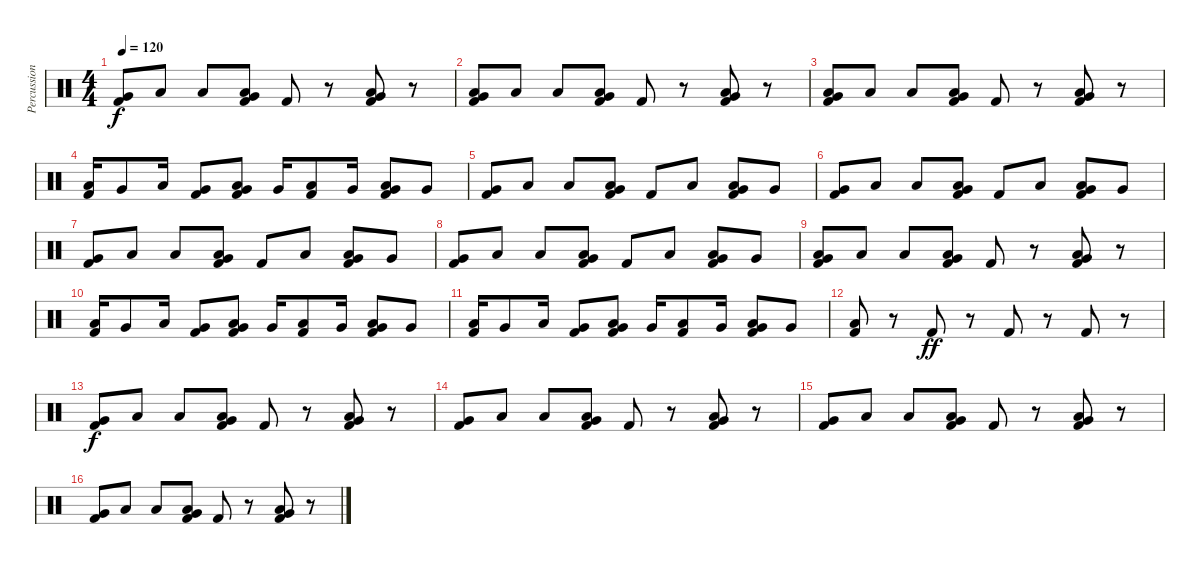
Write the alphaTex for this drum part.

\track ("Percussion" "Percussion") {instrument percussion}
\staff {score}
\articulation defaults
\ts (4 4)
\tempo 120
\clef neutral
\ks c
("Very Low Tom (hit)" "Kick (hit) 2").8{dy f} "Low Floor Tom (hit)".8 "Low Floor Tom (hit)".8 ("Low Floor Tom (hit)" "Very Low Tom (hit)" "Kick (hit) 2").8 "Kick (hit) 2".8 r.8 ("Low Floor Tom (hit)" "Very Low Tom (hit)" "Kick (hit) 2").8 r.8 |
("Low Floor Tom (hit)" "Very Low Tom (hit)" "Kick (hit) 2").8 "Low Floor Tom (hit)".8 "Low Floor Tom (hit)".8 ("Low Floor Tom (hit)" "Very Low Tom (hit)" "Kick (hit) 2").8 "Kick (hit) 2".8 r.8 ("Low Floor Tom (hit)" "Very Low Tom (hit)" "Kick (hit) 2").8 r.8 |
("Low Floor Tom (hit)" "Very Low Tom (hit)" "Kick (hit) 2").8 "Low Floor Tom (hit)".8 "Low Floor Tom (hit)".8 ("Low Floor Tom (hit)" "Very Low Tom (hit)" "Kick (hit) 2").8 "Kick (hit) 2".8 r.8 ("Low Floor Tom (hit)" "Very Low Tom (hit)" "Kick (hit) 2").8 r.8 |
("Low Floor Tom (hit)" "Kick (hit) 2").16 "Very Low Tom (hit)".8 "Low Floor Tom (hit)".16 ("Very Low Tom (hit)" "Kick (hit) 2").8 ("Low Floor Tom (hit)" "Very Low Tom (hit)" "Kick (hit) 2").8 "Very Low Tom (hit)".16 ("Low Floor Tom (hit)" "Kick (hit) 2").8 "Very Low Tom (hit)".16 ("Low Floor Tom (hit)" "Very Low Tom (hit)" "Kick (hit) 2").8 "Very Low Tom (hit)".8 |
("Very Low Tom (hit)" "Kick (hit) 2").8 "Low Floor Tom (hit)".8 "Low Floor Tom (hit)".8 ("Low Floor Tom (hit)" "Very Low Tom (hit)" "Kick (hit) 2").8 "Kick (hit) 2".8 "Low Floor Tom (hit)".8 ("Low Floor Tom (hit)" "Very Low Tom (hit)" "Kick (hit) 2").8 "Very Low Tom (hit)".8 |
("Very Low Tom (hit)" "Kick (hit) 2").8 "Low Floor Tom (hit)".8 "Low Floor Tom (hit)".8 ("Low Floor Tom (hit)" "Very Low Tom (hit)" "Kick (hit) 2").8 "Kick (hit) 2".8 "Low Floor Tom (hit)".8 ("Low Floor Tom (hit)" "Very Low Tom (hit)" "Kick (hit) 2").8 "Very Low Tom (hit)".8 |
("Very Low Tom (hit)" "Kick (hit) 2").8 "Low Floor Tom (hit)".8 "Low Floor Tom (hit)".8 ("Low Floor Tom (hit)" "Very Low Tom (hit)" "Kick (hit) 2").8 "Kick (hit) 2".8 "Low Floor Tom (hit)".8 ("Low Floor Tom (hit)" "Very Low Tom (hit)" "Kick (hit) 2").8 "Very Low Tom (hit)".8 |
("Very Low Tom (hit)" "Kick (hit) 2").8 "Low Floor Tom (hit)".8 "Low Floor Tom (hit)".8 ("Low Floor Tom (hit)" "Very Low Tom (hit)" "Kick (hit) 2").8 "Kick (hit) 2".8 "Low Floor Tom (hit)".8 ("Low Floor Tom (hit)" "Very Low Tom (hit)" "Kick (hit) 2").8 "Very Low Tom (hit)".8 |
("Low Floor Tom (hit)" "Very Low Tom (hit)" "Kick (hit) 2").8 "Low Floor Tom (hit)".8 "Low Floor Tom (hit)".8 ("Low Floor Tom (hit)" "Very Low Tom (hit)" "Kick (hit) 2").8 "Kick (hit) 2".8 r.8 ("Low Floor Tom (hit)" "Very Low Tom (hit)" "Kick (hit) 2").8 r.8 |
("Low Floor Tom (hit)" "Kick (hit) 2").16 "Very Low Tom (hit)".8 "Low Floor Tom (hit)".16 ("Very Low Tom (hit)" "Kick (hit) 2").8 ("Low Floor Tom (hit)" "Very Low Tom (hit)" "Kick (hit) 2").8 "Very Low Tom (hit)".16 ("Low Floor Tom (hit)" "Kick (hit) 2").8 "Very Low Tom (hit)".16 ("Low Floor Tom (hit)" "Very Low Tom (hit)" "Kick (hit) 2").8 "Very Low Tom (hit)".8 |
("Low Floor Tom (hit)" "Kick (hit) 2").16 "Very Low Tom (hit)".8 "Low Floor Tom (hit)".16 ("Very Low Tom (hit)" "Kick (hit) 2").8 ("Low Floor Tom (hit)" "Very Low Tom (hit)" "Kick (hit) 2").8 "Very Low Tom (hit)".16 ("Low Floor Tom (hit)" "Kick (hit) 2").8 "Very Low Tom (hit)".16 ("Low Floor Tom (hit)" "Very Low Tom (hit)" "Kick (hit) 2").8 "Very Low Tom (hit)".8 |
("Low Floor Tom (hit)" "Kick (hit) 2").8 r.8 "Kick (hit) 2".8{dy ff} r.8 "Kick (hit) 2".8 r.8 "Kick (hit) 2".8 r.8 |
("Very Low Tom (hit)" "Kick (hit) 2").8{dy f} "Low Floor Tom (hit)".8 "Low Floor Tom (hit)".8 ("Low Floor Tom (hit)" "Very Low Tom (hit)" "Kick (hit) 2").8 "Kick (hit) 2".8 r.8 ("Low Floor Tom (hit)" "Very Low Tom (hit)" "Kick (hit) 2").8 r.8 |
("Very Low Tom (hit)" "Kick (hit) 2").8 "Low Floor Tom (hit)".8 "Low Floor Tom (hit)".8 ("Low Floor Tom (hit)" "Very Low Tom (hit)" "Kick (hit) 2").8 "Kick (hit) 2".8 r.8 ("Low Floor Tom (hit)" "Very Low Tom (hit)" "Kick (hit) 2").8 r.8 |
("Very Low Tom (hit)" "Kick (hit) 2").8 "Low Floor Tom (hit)".8 "Low Floor Tom (hit)".8 ("Low Floor Tom (hit)" "Very Low Tom (hit)" "Kick (hit) 2").8 "Kick (hit) 2".8 r.8 ("Low Floor Tom (hit)" "Very Low Tom (hit)" "Kick (hit) 2").8 r.8 |
("Very Low Tom (hit)" "Kick (hit) 2").8 "Low Floor Tom (hit)".8 "Low Floor Tom (hit)".8 ("Low Floor Tom (hit)" "Very Low Tom (hit)" "Kick (hit) 2").8 "Kick (hit) 2".8 r.8 ("Low Floor Tom (hit)" "Very Low Tom (hit)" "Kick (hit) 2").8 r.8
